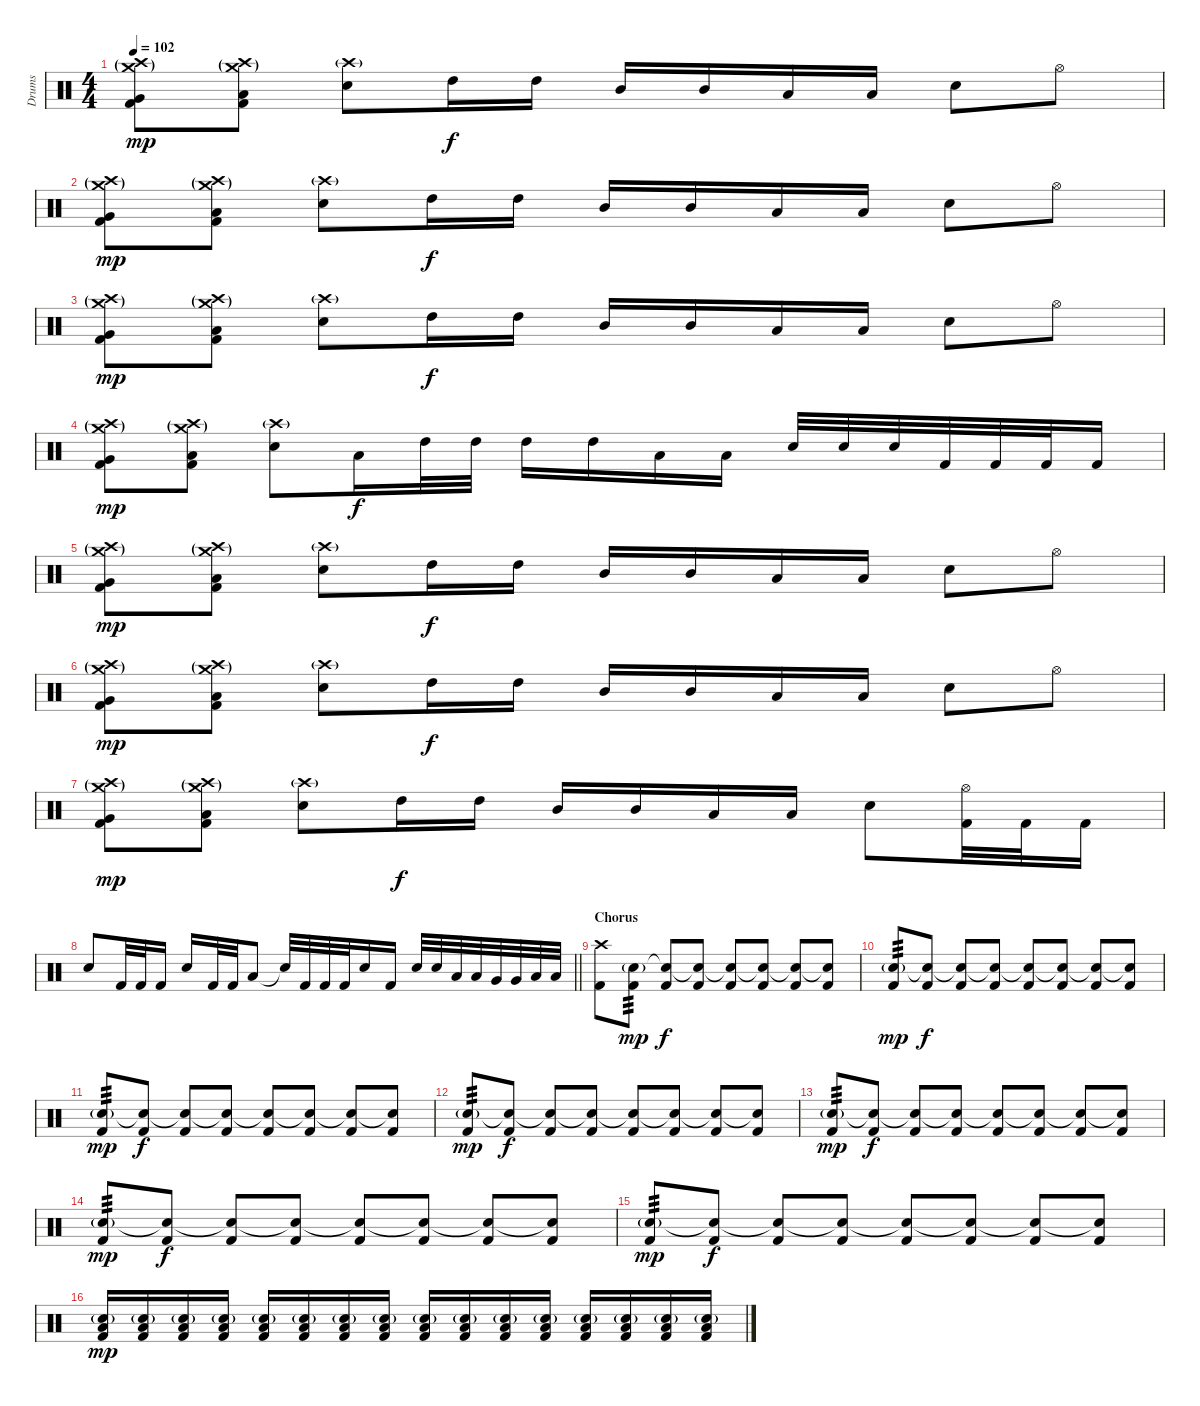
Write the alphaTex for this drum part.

\track ("Drums" "Drums") {instrument percussion}
\staff {score}
\articulation defaults
\ts (4 4)
\tempo 102
\clef neutral
\ks c
("Crash medium (hit)"{g} "Crash high (hit)"{g} "Very Low Tom (hit)" "Kick (hit) 2").8{dy mp volume 16} ("Crash medium (hit)"{g} "Crash high (hit)"{g} "Low Floor Tom (hit)" "Kick (hit) 2").8 ("Crash high (hit)"{g} "Electric Snare (hit)").8 "High Tom (hit)".16{dy f} "High Tom (hit)".16 "Mid Tom (hit)".16 "Mid Tom (hit)".16 "Low Tom (hit)".16 "Low Tom (hit)".16 "Electric Snare (hit)".8 "Hi-Hat (open)".8 |
("Crash medium (hit)"{g} "Crash high (hit)"{g} "Very Low Tom (hit)" "Kick (hit) 2").8{dy mp} ("Crash medium (hit)"{g} "Crash high (hit)"{g} "Low Floor Tom (hit)" "Kick (hit) 2").8 ("Crash high (hit)"{g} "Electric Snare (hit)").8 "High Tom (hit)".16{dy f} "High Tom (hit)".16 "Mid Tom (hit)".16 "Mid Tom (hit)".16 "Low Tom (hit)".16 "Low Tom (hit)".16 "Electric Snare (hit)".8 "Hi-Hat (open)".8 |
("Crash medium (hit)"{g} "Crash high (hit)"{g} "Very Low Tom (hit)" "Kick (hit) 2").8{dy mp} ("Crash medium (hit)"{g} "Crash high (hit)"{g} "Low Floor Tom (hit)" "Kick (hit) 2").8 ("Crash high (hit)"{g} "Electric Snare (hit)").8 "High Tom (hit)".16{dy f} "High Tom (hit)".16 "Mid Tom (hit)".16 "Mid Tom (hit)".16 "Low Tom (hit)".16 "Low Tom (hit)".16 "Electric Snare (hit)".8 "Hi-Hat (open)".8 |
("Crash medium (hit)"{g} "Crash high (hit)"{g} "Very Low Tom (hit)" "Kick (hit) 2").8{dy mp} ("Crash medium (hit)"{g} "Crash high (hit)"{g} "Low Floor Tom (hit)" "Kick (hit) 2").8 ("Crash high (hit)"{g} "Electric Snare (hit)").8 "Low Tom (hit)".16{dy f} "High Tom (hit)".32 "High Tom (hit)".32 "High Tom (hit)".16 "High Tom (hit)".16 "Low Tom (hit)".16 "Low Tom (hit)".16 "Electric Snare (hit)".32 "Electric Snare (hit)".32 "Electric Snare (hit)".32 "Kick (hit) 2".32 "Kick (hit) 2".32 "Kick (hit) 2".32 "Kick (hit) 2".16 |
("Crash medium (hit)"{g} "Crash high (hit)"{g} "Very Low Tom (hit)" "Kick (hit) 2").8{dy mp} ("Crash medium (hit)"{g} "Crash high (hit)"{g} "Low Floor Tom (hit)" "Kick (hit) 2").8 ("Crash high (hit)"{g} "Electric Snare (hit)").8 "High Tom (hit)".16{dy f} "High Tom (hit)".16 "Mid Tom (hit)".16 "Mid Tom (hit)".16 "Low Tom (hit)".16 "Low Tom (hit)".16 "Electric Snare (hit)".8 "Hi-Hat (open)".8 |
("Crash medium (hit)"{g} "Crash high (hit)"{g} "Very Low Tom (hit)" "Kick (hit) 2").8{dy mp} ("Crash medium (hit)"{g} "Crash high (hit)"{g} "Low Floor Tom (hit)" "Kick (hit) 2").8 ("Crash high (hit)"{g} "Electric Snare (hit)").8 "High Tom (hit)".16{dy f} "High Tom (hit)".16 "Mid Tom (hit)".16 "Mid Tom (hit)".16 "Low Tom (hit)".16 "Low Tom (hit)".16 "Electric Snare (hit)".8 "Hi-Hat (open)".8 |
("Crash medium (hit)"{g} "Crash high (hit)"{g} "Very Low Tom (hit)" "Kick (hit) 2").8{dy mp} ("Crash medium (hit)"{g} "Crash high (hit)"{g} "Low Floor Tom (hit)" "Kick (hit) 2").8 ("Crash high (hit)"{g} "Electric Snare (hit)").8 "High Tom (hit)".16{dy f} "High Tom (hit)".16 "Mid Tom (hit)".16 "Mid Tom (hit)".16 "Low Tom (hit)".16 "Low Tom (hit)".16 "Electric Snare (hit)".8 ("Hi-Hat (open)" "Kick (hit) 2").32 "Kick (hit) 2".32 "Kick (hit) 2".16 |
\barLineRight lightlight "Electric Snare (hit)".8 "Kick (hit) 2".32 "Kick (hit) 2".32 "Kick (hit) 2".16 "Electric Snare (hit)".16 "Kick (hit) 2".32 "Kick (hit) 2".32 "Low Tom (hit)".8 "Snare (hit)"{t}.32 "Kick (hit) 2".32 "Kick (hit) 2".32 "Kick (hit) 2".32 "Electric Snare (hit)".16 "Kick (hit) 2".16 "Electric Snare (hit)".32 "Electric Snare (hit)".32 "Low Tom (hit)".32 "Low Tom (hit)".32 "Very Low Tom (hit)".32 "Very Low Tom (hit)".32 "Low Floor Tom (hit)".32 "Low Floor Tom (hit)".32
|
\section ("" "Chorus")
("Crash high (hit)" "Kick (hit) 2").8 ("Electric Snare (hit)"{g} "Kick (hit) 2").8{tp 3 dy mp} ("Snare (hit)"{t} "Kick (hit) 2").8{dy f} ("Snare (hit)"{t} "Kick (hit) 2").8 ("Snare (hit)"{t} "Kick (hit) 2").8 ("Snare (hit)"{t} "Kick (hit) 2").8 ("Snare (hit)"{t} "Kick (hit) 2").8 ("Snare (hit)"{t} "Kick (hit) 2").8 |
("Electric Snare (hit)"{g} "Kick (hit) 2").8{tp 3 dy mp} ("Snare (hit)"{t} "Kick (hit) 2").8{dy f} ("Snare (hit)"{t} "Kick (hit) 2").8 ("Snare (hit)"{t} "Kick (hit) 2").8 ("Snare (hit)"{t} "Kick (hit) 2").8 ("Snare (hit)"{t} "Kick (hit) 2").8 ("Snare (hit)"{t} "Kick (hit) 2").8 ("Snare (hit)"{t} "Kick (hit) 2").8 |
("Electric Snare (hit)"{g} "Kick (hit) 2").8{tp 3 dy mp} ("Snare (hit)"{t} "Kick (hit) 2").8{dy f} ("Snare (hit)"{t} "Kick (hit) 2").8 ("Snare (hit)"{t} "Kick (hit) 2").8 ("Snare (hit)"{t} "Kick (hit) 2").8 ("Snare (hit)"{t} "Kick (hit) 2").8 ("Snare (hit)"{t} "Kick (hit) 2").8 ("Snare (hit)"{t} "Kick (hit) 2").8 |
("Electric Snare (hit)"{g} "Kick (hit) 2").8{tp 3 dy mp} ("Snare (hit)"{t} "Kick (hit) 2").8{dy f} ("Snare (hit)"{t} "Kick (hit) 2").8 ("Snare (hit)"{t} "Kick (hit) 2").8 ("Snare (hit)"{t} "Kick (hit) 2").8 ("Snare (hit)"{t} "Kick (hit) 2").8 ("Snare (hit)"{t} "Kick (hit) 2").8 ("Snare (hit)"{t} "Kick (hit) 2").8 |
("Electric Snare (hit)"{g} "Kick (hit) 2").8{tp 3 dy mp} ("Snare (hit)"{t} "Kick (hit) 2").8{dy f} ("Snare (hit)"{t} "Kick (hit) 2").8 ("Snare (hit)"{t} "Kick (hit) 2").8 ("Snare (hit)"{t} "Kick (hit) 2").8 ("Snare (hit)"{t} "Kick (hit) 2").8 ("Snare (hit)"{t} "Kick (hit) 2").8 ("Snare (hit)"{t} "Kick (hit) 2").8 |
("Electric Snare (hit)"{g} "Kick (hit) 2").8{tp 3 dy mp} ("Snare (hit)"{t} "Kick (hit) 2").8{dy f} ("Snare (hit)"{t} "Kick (hit) 2").8 ("Snare (hit)"{t} "Kick (hit) 2").8 ("Snare (hit)"{t} "Kick (hit) 2").8 ("Snare (hit)"{t} "Kick (hit) 2").8 ("Snare (hit)"{t} "Kick (hit) 2").8 ("Snare (hit)"{t} "Kick (hit) 2").8 |
("Electric Snare (hit)"{g} "Kick (hit) 2").8{tp 3 dy mp} ("Snare (hit)"{t} "Kick (hit) 2").8{dy f} ("Snare (hit)"{t} "Kick (hit) 2").8 ("Snare (hit)"{t} "Kick (hit) 2").8 ("Snare (hit)"{t} "Kick (hit) 2").8 ("Snare (hit)"{t} "Kick (hit) 2").8 ("Snare (hit)"{t} "Kick (hit) 2").8 ("Snare (hit)"{t} "Kick (hit) 2").8 |
("Electric Snare (hit)"{g} "Low Floor Tom (hit)" "Kick (hit) 2").16{dy mp} ("Electric Snare (hit)"{g} "Low Floor Tom (hit)" "Kick (hit) 2").16 ("Electric Snare (hit)"{g} "Low Floor Tom (hit)" "Kick (hit) 2").16 ("Electric Snare (hit)"{g} "Low Floor Tom (hit)" "Kick (hit) 2").16 ("Electric Snare (hit)"{g} "Low Floor Tom (hit)" "Kick (hit) 2").16 ("Electric Snare (hit)"{g} "Low Floor Tom (hit)" "Kick (hit) 2").16 ("Electric Snare (hit)"{g} "Low Floor Tom (hit)" "Kick (hit) 2").16 ("Electric Snare (hit)"{g} "Low Floor Tom (hit)" "Kick (hit) 2").16 ("Electric Snare (hit)"{g} "Low Floor Tom (hit)" "Kick (hit) 2").16 ("Electric Snare (hit)"{g} "Low Floor Tom (hit)" "Kick (hit) 2").16 ("Electric Snare (hit)"{g} "Low Floor Tom (hit)" "Kick (hit) 2").16 ("Electric Snare (hit)"{g} "Low Floor Tom (hit)" "Kick (hit) 2").16 ("Electric Snare (hit)"{g} "Low Floor Tom (hit)" "Kick (hit) 2").16 ("Electric Snare (hit)"{g} "Low Floor Tom (hit)" "Kick (hit) 2").16 ("Electric Snare (hit)"{g} "Low Floor Tom (hit)" "Kick (hit) 2").16 ("Electric Snare (hit)"{g} "Low Floor Tom (hit)" "Kick (hit) 2").16
